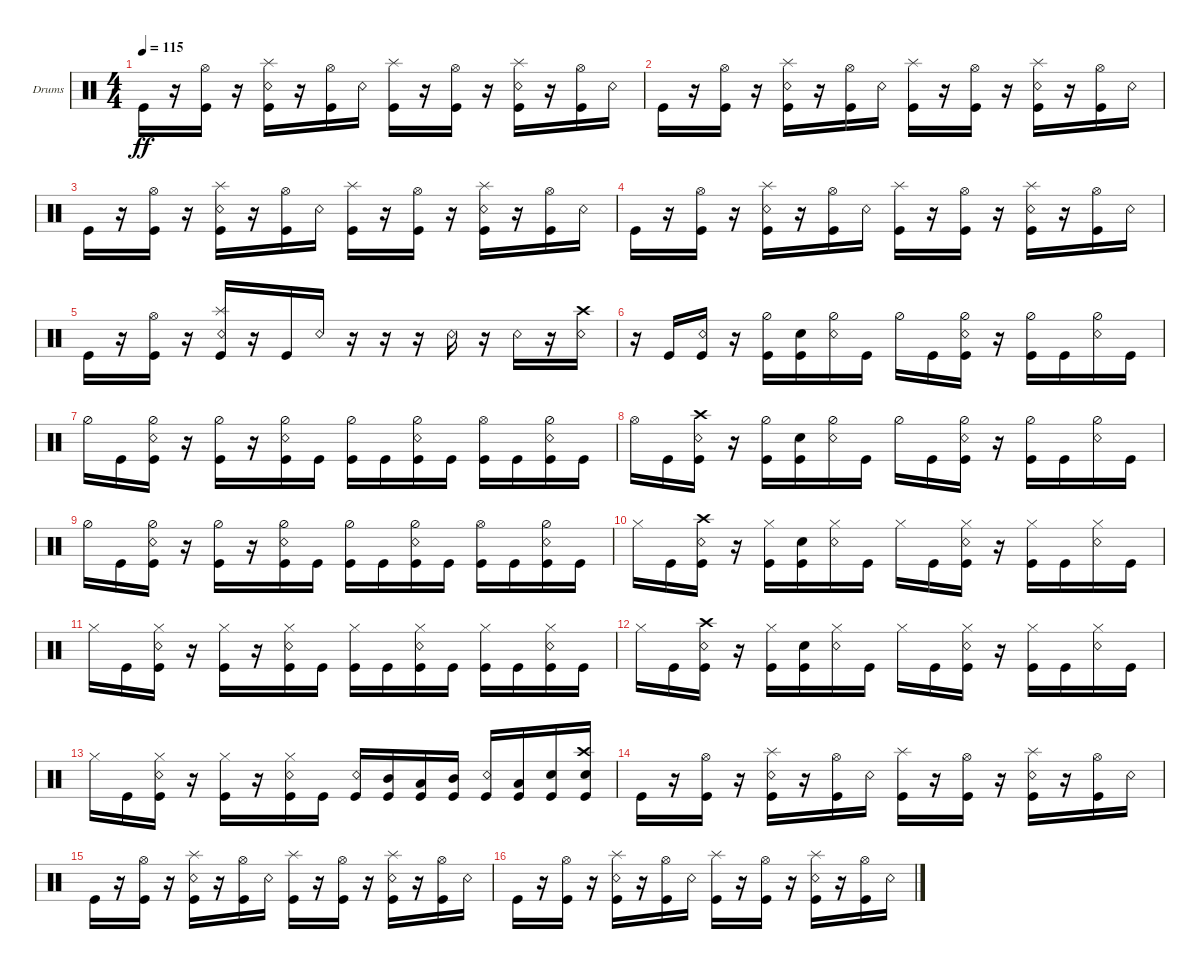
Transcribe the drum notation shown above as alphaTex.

\bracketExtendMode groupsimilarinstruments
\firstSystemTrackNameOrientation horizontal
\otherSystemsTrackNameOrientation horizontal
\track ("Drumkit" "Drums") {instrument percussion}
\staff {score}
\articulation defaults
\ts (4 4)
\tempo 115
\clef neutral
\ks c "Kick (hit)".16{dy ff}
r.16 ("Kick (hit)" "Hi-Hat (open)").16 r.16 ("Kick (hit)" "Splash (hit)" "Snare (rim shot)").16 r.16 ("Kick (hit)" "Hi-Hat (open)").16 "Snare (rim shot)".16 ("Kick (hit)" "Splash (hit)").16 r.16 ("Kick (hit)" "Hi-Hat (open)").16 r.16 ("Kick (hit)" "Splash (hit)" "Snare (rim shot)").16 r.16 ("Kick (hit)" "Hi-Hat (open)").16 "Snare (rim shot)".16 |
"Kick (hit)".16 r.16 ("Kick (hit)" "Hi-Hat (open)").16 r.16 ("Kick (hit)" "Splash (hit)" "Snare (rim shot)").16 r.16 ("Kick (hit)" "Hi-Hat (open)").16 "Snare (rim shot)".16 ("Kick (hit)" "Splash (hit)").16 r.16 ("Kick (hit)" "Hi-Hat (open)").16 r.16 ("Kick (hit)" "Splash (hit)" "Snare (rim shot)").16 r.16 ("Kick (hit)" "Hi-Hat (open)").16 "Snare (rim shot)".16 |
"Kick (hit)".16 r.16 ("Kick (hit)" "Hi-Hat (open)").16 r.16 ("Kick (hit)" "Splash (hit)" "Snare (rim shot)").16 r.16 ("Kick (hit)" "Hi-Hat (open)").16 "Snare (rim shot)".16 ("Kick (hit)" "Splash (hit)").16 r.16 ("Kick (hit)" "Hi-Hat (open)").16 r.16 ("Kick (hit)" "Splash (hit)" "Snare (rim shot)").16 r.16 ("Kick (hit)" "Hi-Hat (open)").16 "Snare (rim shot)".16 |
"Kick (hit)".16 r.16 ("Kick (hit)" "Hi-Hat (open)").16 r.16 ("Kick (hit)" "Splash (hit)" "Snare (rim shot)").16 r.16 ("Kick (hit)" "Hi-Hat (open)").16 "Snare (rim shot)".16 ("Kick (hit)" "Splash (hit)").16 r.16 ("Kick (hit)" "Hi-Hat (open)").16 r.16 ("Kick (hit)" "Splash (hit)" "Snare (rim shot)").16 r.16 ("Kick (hit)" "Hi-Hat (open)").16 "Snare (rim shot)".16 |
"Kick (hit)".16 r.16 ("Kick (hit)" "Hi-Hat (open)").16 r.16 ("Kick (hit)" "Splash (hit)" "Snare (rim shot)").16 r.16 "Kick (hit)".16 "Snare (rim shot)".16 r.16 r.16 r.16 "Snare (rim shot)".16 r.16 "Snare (rim shot)".16 r.16 ("Snare (rim shot)" "Crash high (hit)").16 |
r.16 "Kick (hit)".16 ("Snare (rim shot)" "Kick (hit)").16 r.16 ("Kick (hit)" "Hi-Hat (half)").16 ("Kick (hit)" "Snare (hit) 2").16 ("Hi-Hat (half)" "Snare (rim shot)").16 "Kick (hit)".16 "Hi-Hat (half)".16 "Kick (hit)".16 ("Kick (hit)" "Hi-Hat (half)" "Snare (rim shot)").16 r.16 ("Kick (hit)" "Hi-Hat (half)").16 "Kick (hit)".16 ("Hi-Hat (half)" "Snare (rim shot)").16 "Kick (hit)".16 |
"Hi-Hat (half)".16 "Kick (hit)".16 ("Kick (hit)" "Snare (rim shot)" "Hi-Hat (half)").16 r.16 ("Kick (hit)" "Hi-Hat (half)").16 r.16 ("Hi-Hat (half)" "Snare (rim shot)" "Kick (hit)").16 "Kick (hit)".16 ("Hi-Hat (half)" "Kick (hit)").16 "Kick (hit)".16 ("Kick (hit)" "Hi-Hat (half)" "Snare (rim shot)").16 "Kick (hit)".16 ("Kick (hit)" "Hi-Hat (open)").16 "Kick (hit)".16 ("Hi-Hat (half)" "Snare (rim shot)" "Kick (hit)").16 "Kick (hit)".16 |
"Hi-Hat (open)".16 "Kick (hit)".16 ("Kick (hit)" "Crash high (hit)" "Snare (rim shot)").16 r.16 ("Kick (hit)" "Hi-Hat (half)").16 ("Kick (hit)" "Snare (hit) 2").16 ("Hi-Hat (half)" "Snare (rim shot)").16 "Kick (hit)".16 "Hi-Hat (half)".16 "Kick (hit)".16 ("Kick (hit)" "Hi-Hat (half)" "Snare (rim shot)").16 r.16 ("Kick (hit)" "Hi-Hat (half)").16 "Kick (hit)".16 ("Hi-Hat (half)" "Snare (rim shot)").16 "Kick (hit)".16 |
"Hi-Hat (half)".16 "Kick (hit)".16 ("Kick (hit)" "Snare (rim shot)" "Hi-Hat (half)").16 r.16 ("Kick (hit)" "Hi-Hat (half)").16 r.16 ("Hi-Hat (half)" "Snare (rim shot)" "Kick (hit)").16 "Kick (hit)".16 ("Hi-Hat (half)" "Kick (hit)").16 "Kick (hit)".16 ("Kick (hit)" "Hi-Hat (half)" "Snare (rim shot)").16 "Kick (hit)".16 ("Kick (hit)" "Hi-Hat (open)").16 "Kick (hit)".16 ("Hi-Hat (half)" "Snare (rim shot)" "Kick (hit)").16 "Kick (hit)".16 |
"Hi-Hat (closed)".16 "Kick (hit)".16 ("Kick (hit)" "Crash high (hit)" "Snare (rim shot)").16 r.16 ("Kick (hit)" "Hi-Hat (closed)").16 ("Kick (hit)" "Snare (hit) 2").16 ("Hi-Hat (closed)" "Snare (rim shot)").16 "Kick (hit)".16 "Hi-Hat (closed)".16 "Kick (hit)".16 ("Kick (hit)" "Hi-Hat (closed)" "Snare (rim shot)").16 r.16 ("Kick (hit)" "Hi-Hat (closed)").16 "Kick (hit)".16 ("Hi-Hat (closed)" "Snare (rim shot)").16 "Kick (hit)".16 |
"Hi-Hat (closed)".16 "Kick (hit)".16 ("Kick (hit)" "Snare (rim shot)" "Hi-Hat (closed)").16 r.16 ("Kick (hit)" "Hi-Hat (closed)").16 r.16 ("Hi-Hat (closed)" "Snare (rim shot)" "Kick (hit)").16 "Kick (hit)".16 ("Hi-Hat (closed)" "Kick (hit)").16 "Kick (hit)".16 ("Kick (hit)" "Snare (rim shot)" "Hi-Hat (closed)").16 "Kick (hit)".16 ("Kick (hit)" "Hi-Hat (closed)").16 "Kick (hit)".16 ("Hi-Hat (closed)" "Snare (rim shot)" "Kick (hit)").16 "Kick (hit)".16 |
"Hi-Hat (closed)".16 "Kick (hit)".16 ("Kick (hit)" "Crash high (hit)" "Snare (rim shot)").16 r.16 ("Kick (hit)" "Hi-Hat (closed)").16 ("Kick (hit)" "Snare (hit) 2").16 ("Hi-Hat (closed)" "Snare (rim shot)").16 "Kick (hit)".16 "Hi-Hat (closed)".16 "Kick (hit)".16 ("Kick (hit)" "Hi-Hat (closed)" "Snare (rim shot)").16 r.16 ("Kick (hit)" "Hi-Hat (closed)").16 "Kick (hit)".16 ("Hi-Hat (closed)" "Snare (rim shot)").16 "Kick (hit)".16 |
"Hi-Hat (closed)".16 "Kick (hit)".16 ("Kick (hit)" "Snare (rim shot)" "Hi-Hat (closed)").16 r.16 ("Kick (hit)" "Hi-Hat (closed)").16 r.16 ("Hi-Hat (closed)" "Snare (rim shot)" "Kick (hit)").16 "Kick (hit)".16 ("Kick (hit)" "Snare (rim shot)").16 ("Kick (hit)" "Mid Tom (hit)").16 ("Kick (hit)" "Low Tom (hit)").16 ("Kick (hit)" "Mid Tom (hit)").16 ("Kick (hit)" "Snare (rim shot)").16 ("Kick (hit)" "Low Tom (hit)").16 ("Kick (hit)" "Snare (hit) 2").16 ("Kick (hit)" "Snare (hit) 2" "Crash high (hit)").16 |
"Kick (hit)".16 r.16 ("Kick (hit)" "Hi-Hat (open)").16 r.16 ("Kick (hit)" "Splash (hit)" "Snare (rim shot)").16 r.16 ("Kick (hit)" "Hi-Hat (open)").16 "Snare (rim shot)".16 ("Kick (hit)" "Splash (hit)").16 r.16 ("Kick (hit)" "Hi-Hat (open)").16 r.16 ("Kick (hit)" "Splash (hit)" "Snare (rim shot)").16 r.16 ("Kick (hit)" "Hi-Hat (open)").16 "Snare (rim shot)".16 |
"Kick (hit)".16 r.16 ("Kick (hit)" "Hi-Hat (open)").16 r.16 ("Kick (hit)" "Splash (hit)" "Snare (rim shot)").16 r.16 ("Kick (hit)" "Hi-Hat (open)").16 "Snare (rim shot)".16 ("Kick (hit)" "Splash (hit)").16 r.16 ("Kick (hit)" "Hi-Hat (open)").16 r.16 ("Kick (hit)" "Splash (hit)" "Snare (rim shot)").16 r.16 ("Kick (hit)" "Hi-Hat (open)").16 "Snare (rim shot)".16 |
"Kick (hit)".16 r.16 ("Kick (hit)" "Hi-Hat (open)").16 r.16 ("Kick (hit)" "Splash (hit)" "Snare (rim shot)").16 r.16 ("Kick (hit)" "Hi-Hat (open)").16 "Snare (rim shot)".16 ("Kick (hit)" "Splash (hit)").16 r.16 ("Kick (hit)" "Hi-Hat (open)").16 r.16 ("Kick (hit)" "Splash (hit)" "Snare (rim shot)").16 r.16 ("Kick (hit)" "Hi-Hat (open)").16 "Snare (rim shot)".16
